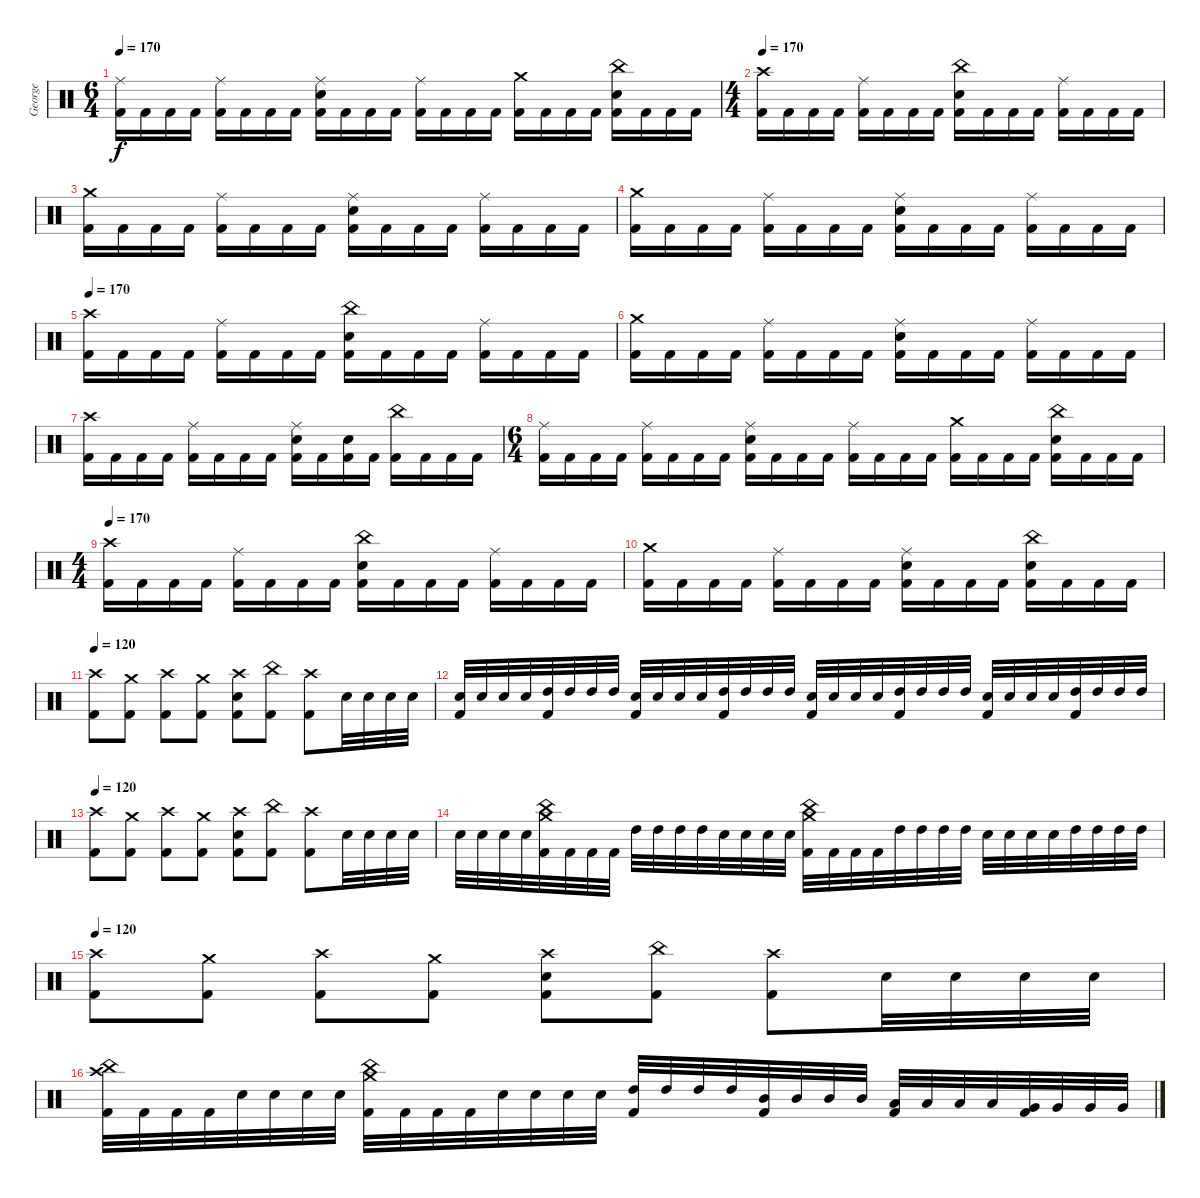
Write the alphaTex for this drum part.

\track ("George" "George") {instrument percussion}
\staff {score}
\articulation defaults
\ts (6 4)
\tempo 170
\clef neutral
\ks c
("Ride (middle)" "Kick (hit) 2").16{dy f} "Kick (hit) 2".16 "Kick (hit) 2".16 "Kick (hit) 2".16 ("Ride (middle)" "Kick (hit) 2").16 "Kick (hit) 2".16 "Kick (hit) 2".16 "Kick (hit) 2".16 ("Ride (middle)" "Snare (hit) 2" "Kick (hit) 2").16 "Kick (hit) 2".16 "Kick (hit) 2".16 "Kick (hit) 2".16 ("Ride (middle)" "Kick (hit) 2").16 "Kick (hit) 2".16 "Kick (hit) 2".16 "Kick (hit) 2".16 ("Crash medium (hit)" "Kick (hit) 2").16 "Kick (hit) 2".16 "Kick (hit) 2".16 "Kick (hit) 2".16 ("China (hit)" "Snare (hit) 2" "Kick (hit) 2").16 "Kick (hit) 2".16 "Kick (hit) 2".16 "Kick (hit) 2".16 |
\ts (4 4)
\tempo 170
("Crash high (hit)" "Kick (hit) 2").16 "Kick (hit) 2".16 "Kick (hit) 2".16 "Kick (hit) 2".16 ("Ride (middle)" "Kick (hit) 2").16 "Kick (hit) 2".16 "Kick (hit) 2".16 "Kick (hit) 2".16 ("China (hit)" "Snare (hit) 2" "Kick (hit) 2").16 "Kick (hit) 2".16 "Kick (hit) 2".16 "Kick (hit) 2".16 ("Ride (middle)" "Kick (hit) 2").16 "Kick (hit) 2".16 "Kick (hit) 2".16 "Kick (hit) 2".16 |
("Crash medium (hit)" "Kick (hit) 2").16 "Kick (hit) 2".16 "Kick (hit) 2".16 "Kick (hit) 2".16 ("Ride (middle)" "Kick (hit) 2").16 "Kick (hit) 2".16 "Kick (hit) 2".16 "Kick (hit) 2".16 ("Ride (middle)" "Snare (hit) 2" "Kick (hit) 2").16 "Kick (hit) 2".16 "Kick (hit) 2".16 "Kick (hit) 2".16 ("Ride (middle)" "Kick (hit) 2").16 "Kick (hit) 2".16 "Kick (hit) 2".16 "Kick (hit) 2".16 |
("Crash medium (hit)" "Kick (hit) 2").16 "Kick (hit) 2".16 "Kick (hit) 2".16 "Kick (hit) 2".16 ("Ride (middle)" "Kick (hit) 2").16 "Kick (hit) 2".16 "Kick (hit) 2".16 "Kick (hit) 2".16 ("Ride (middle)" "Snare (hit) 2" "Kick (hit) 2").16 "Kick (hit) 2".16 "Kick (hit) 2".16 "Kick (hit) 2".16 ("Ride (middle)" "Kick (hit) 2").16 "Kick (hit) 2".16 "Kick (hit) 2".16 "Kick (hit) 2".16 |
\tempo 170
("Crash high (hit)" "Kick (hit) 2").16 "Kick (hit) 2".16 "Kick (hit) 2".16 "Kick (hit) 2".16 ("Ride (middle)" "Kick (hit) 2").16 "Kick (hit) 2".16 "Kick (hit) 2".16 "Kick (hit) 2".16 ("China (hit)" "Snare (hit) 2" "Kick (hit) 2").16 "Kick (hit) 2".16 "Kick (hit) 2".16 "Kick (hit) 2".16 ("Ride (middle)" "Kick (hit) 2").16 "Kick (hit) 2".16 "Kick (hit) 2".16 "Kick (hit) 2".16 |
("Crash medium (hit)" "Kick (hit) 2").16 "Kick (hit) 2".16 "Kick (hit) 2".16 "Kick (hit) 2".16 ("Ride (middle)" "Kick (hit) 2").16 "Kick (hit) 2".16 "Kick (hit) 2".16 "Kick (hit) 2".16 ("Ride (middle)" "Snare (hit) 2" "Kick (hit) 2").16 "Kick (hit) 2".16 "Kick (hit) 2".16 "Kick (hit) 2".16 ("Ride (middle)" "Kick (hit) 2").16 "Kick (hit) 2".16 "Kick (hit) 2".16 "Kick (hit) 2".16 |
("Crash high (hit)" "Kick (hit) 2").16 "Kick (hit) 2".16 "Kick (hit) 2".16 "Kick (hit) 2".16 ("Ride (middle)" "Kick (hit) 2").16 "Kick (hit) 2".16 "Kick (hit) 2".16 "Kick (hit) 2".16 ("Ride (middle)" "Snare (hit) 2" "Kick (hit) 2").16 "Kick (hit) 2".16 ("Snare (hit) 2" "Kick (hit) 2").16 "Kick (hit) 2".16 ("China (hit)" "Kick (hit) 2").16 "Kick (hit) 2".16 "Kick (hit) 2".16 "Kick (hit) 2".16 |
\ts (6 4)
("Ride (middle)" "Kick (hit) 2").16 "Kick (hit) 2".16 "Kick (hit) 2".16 "Kick (hit) 2".16 ("Ride (middle)" "Kick (hit) 2").16 "Kick (hit) 2".16 "Kick (hit) 2".16 "Kick (hit) 2".16 ("Ride (middle)" "Snare (hit) 2" "Kick (hit) 2").16 "Kick (hit) 2".16 "Kick (hit) 2".16 "Kick (hit) 2".16 ("Ride (middle)" "Kick (hit) 2").16 "Kick (hit) 2".16 "Kick (hit) 2".16 "Kick (hit) 2".16 ("Crash medium (hit)" "Kick (hit) 2").16 "Kick (hit) 2".16 "Kick (hit) 2".16 "Kick (hit) 2".16 ("China (hit)" "Snare (hit) 2" "Kick (hit) 2").16 "Kick (hit) 2".16 "Kick (hit) 2".16 "Kick (hit) 2".16 |
\ts (4 4)
\tempo 170
("Crash high (hit)" "Kick (hit) 2").16 "Kick (hit) 2".16 "Kick (hit) 2".16 "Kick (hit) 2".16 ("Ride (middle)" "Kick (hit) 2").16 "Kick (hit) 2".16 "Kick (hit) 2".16 "Kick (hit) 2".16 ("China (hit)" "Snare (hit) 2" "Kick (hit) 2").16 "Kick (hit) 2".16 "Kick (hit) 2".16 "Kick (hit) 2".16 ("Ride (middle)" "Kick (hit) 2").16 "Kick (hit) 2".16 "Kick (hit) 2".16 "Kick (hit) 2".16 |
("Crash medium (hit)" "Kick (hit) 2").16 "Kick (hit) 2".16 "Kick (hit) 2".16 "Kick (hit) 2".16 ("Ride (middle)" "Kick (hit) 2").16 "Kick (hit) 2".16 "Kick (hit) 2".16 "Kick (hit) 2".16 ("Ride (middle)" "Snare (hit)" "Kick (hit) 2").16 "Kick (hit) 2".16 "Kick (hit) 2".16 "Kick (hit) 2".16 ("China (hit)" "Snare (hit) 2" "Kick (hit) 2").16 "Kick (hit) 2".16 "Kick (hit) 2".16 "Kick (hit) 2".16 |
\tempo 120
("Crash high (hit)" "Kick (hit) 2").8 ("Crash medium (hit)" "Kick (hit) 2").8 ("Crash high (hit)" "Kick (hit) 2").8 ("Crash medium (hit)" "Kick (hit) 2").8 ("Crash high (hit)" "Snare (hit) 2" "Kick (hit) 2").8 ("China (hit)" "Kick (hit) 2").8 ("Crash high (hit)" "Kick (hit) 2").8 "Snare (hit) 2".32 "Snare (hit) 2".32 "Snare (hit) 2".32 "Snare (hit) 2".32 |
("Snare (hit) 2" "Kick (hit) 2").32 "Snare (hit) 2".32 "Snare (hit) 2".32 "Snare (hit) 2".32 ("High Tom (hit)" "Kick (hit) 2").32 "High Tom (hit)".32 "High Tom (hit)".32 "High Tom (hit)".32 ("Snare (hit) 2" "Kick (hit) 2").32 "Snare (hit) 2".32 "Snare (hit) 2".32 "Snare (hit) 2".32 ("High Tom (hit)" "Kick (hit) 2").32 "High Tom (hit)".32 "High Tom (hit)".32 "High Tom (hit)".32 ("Snare (hit) 2" "Kick (hit) 2").32 "Snare (hit) 2".32 "Snare (hit) 2".32 "Snare (hit) 2".32 ("High Tom (hit)" "Kick (hit) 2").32 "High Tom (hit)".32 "High Tom (hit)".32 "High Tom (hit)".32 ("Snare (hit) 2" "Kick (hit) 2").32 "Snare (hit) 2".32 "Snare (hit) 2".32 "Snare (hit) 2".32 ("High Tom (hit)" "Kick (hit) 2").32 "High Tom (hit)".32 "High Tom (hit)".32 "High Tom (hit)".32 |
\tempo 120
("Crash high (hit)" "Kick (hit) 2").8 ("Crash medium (hit)" "Kick (hit) 2").8 ("Crash high (hit)" "Kick (hit) 2").8 ("Crash medium (hit)" "Kick (hit) 2").8 ("Crash high (hit)" "Snare (hit) 2" "Kick (hit) 2").8 ("China (hit)" "Kick (hit) 2").8 ("Crash high (hit)" "Kick (hit) 2").8 "Snare (hit) 2".32 "Snare (hit) 2".32 "Snare (hit) 2".32 "Snare (hit) 2".32 |
"Snare (hit) 2".32 "Snare (hit) 2".32 "Snare (hit) 2".32 "Snare (hit) 2".32 ("China (hit)" "Crash medium (hit)" "Kick (hit) 2").32 "Kick (hit) 2".32 "Kick (hit) 2".32 "Kick (hit) 2".32 "High Tom (hit)".32 "High Tom (hit)".32 "High Tom (hit)".32 "High Tom (hit)".32 "Snare (hit) 2".32 "Snare (hit) 2".32 "Snare (hit) 2".32 "Snare (hit) 2".32 ("China (hit)" "Crash medium (hit)" "Kick (hit) 2").32 "Kick (hit) 2".32 "Kick (hit) 2".32 "Kick (hit) 2".32 "High Tom (hit)".32 "High Tom (hit)".32 "High Tom (hit)".32 "High Tom (hit)".32 "Snare (hit) 2".32 "Snare (hit) 2".32 "Snare (hit) 2".32 "Snare (hit) 2".32 "High Tom (hit)".32 "High Tom (hit)".32 "High Tom (hit)".32 "High Tom (hit)".32 |
\tempo 120
("Crash high (hit)" "Kick (hit) 2").8 ("Crash medium (hit)" "Kick (hit) 2").8 ("Crash high (hit)" "Kick (hit) 2").8 ("Crash medium (hit)" "Kick (hit) 2").8 ("Crash high (hit)" "Snare (hit) 2" "Kick (hit) 2").8 ("China (hit)" "Kick (hit) 2").8 ("Crash high (hit)" "Kick (hit) 2").8 "Snare (hit) 2".32 "Snare (hit) 2".32 "Snare (hit) 2".32 "Snare (hit) 2".32 |
("China (hit)" "Crash high (hit)" "Kick (hit) 2").32 "Kick (hit) 2".32 "Kick (hit) 2".32 "Kick (hit) 2".32 "Snare (hit) 2".32 "Snare (hit) 2".32 "Snare (hit) 2".32 "Snare (hit) 2".32 ("China (hit)" "Crash medium (hit)" "Kick (hit) 2").32 "Kick (hit) 2".32 "Kick (hit) 2".32 "Kick (hit) 2".32 "Snare (hit) 2".32 "Snare (hit) 2".32 "Snare (hit) 2".32 "Snare (hit) 2".32 ("High Tom (hit)" "Kick (hit) 2").32 "High Tom (hit)".32 "High Tom (hit)".32 "High Tom (hit)".32 ("Mid Tom (hit)" "Kick (hit) 2").32 "Mid Tom (hit)".32 "Mid Tom (hit)".32 "Mid Tom (hit)".32 ("Low Tom (hit)" "Kick (hit) 2").32 "Low Tom (hit)".32 "Low Tom (hit)".32 "Low Tom (hit)".32 ("Very Low Tom (hit)" "Kick (hit) 2").32 "Very Low Tom (hit)".32 "Very Low Tom (hit)".32 "Very Low Tom (hit)".32
